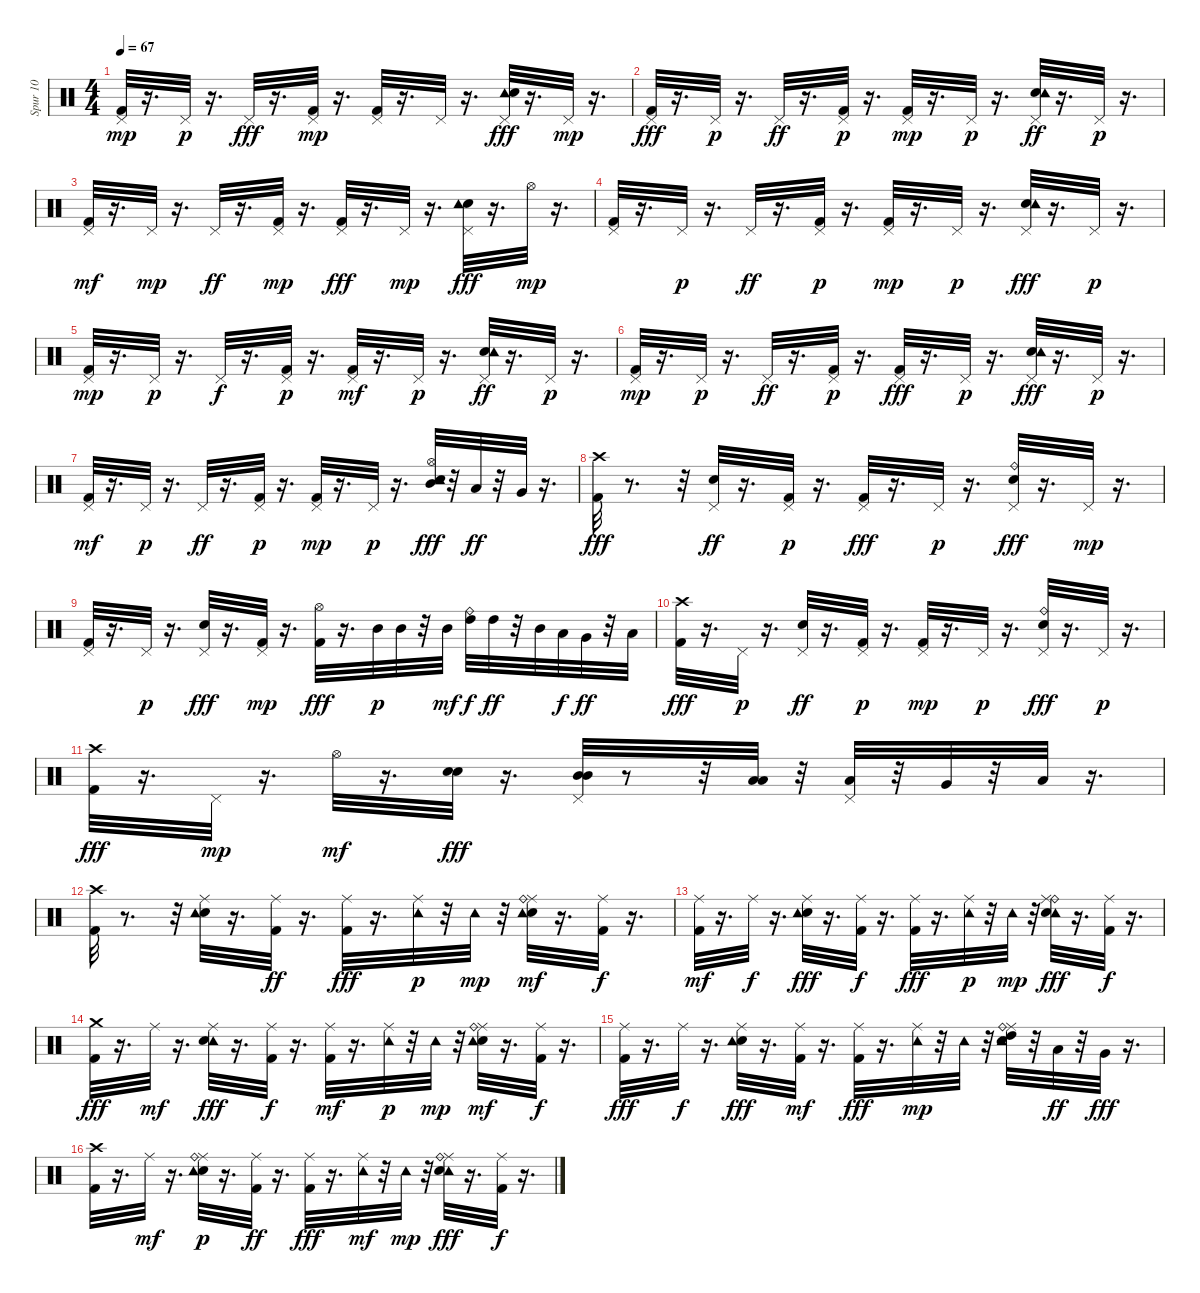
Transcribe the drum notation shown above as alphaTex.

\track ("Spur 10" "Spur 10") {instrument percussion}
\staff {score}
\articulation defaults
\ts (4 4)
\tempo 67
\clef neutral
\ks c
("Kick (hit) 2" "Pedal Hi-Hat (hit)").32{dy mp} r.16{d} "Pedal Hi-Hat (hit)".32{dy p} r.16{d} "Pedal Hi-Hat (hit)".32{dy fff} r.16{d} ("Pedal Hi-Hat (hit)" "Kick (hit) 2").32{dy mp} r.16{d} ("Kick (hit) 2" "Pedal Hi-Hat (hit)").32 r.16{d} "Pedal Hi-Hat (hit)".32 r.16{d} ("Tambourine (hit)" "Pedal Hi-Hat (hit)" "Snare (hit) 2").32{dy fff} r.16{d} "Pedal Hi-Hat (hit)".32{dy mp} r.16{d} |
("Pedal Hi-Hat (hit)" "Kick (hit) 2").32{dy fff} r.16{d} "Pedal Hi-Hat (hit)".32{dy p} r.16{d} "Pedal Hi-Hat (hit)".32{dy ff} r.16{d} ("Pedal Hi-Hat (hit)" "Kick (hit) 2").32{dy p} r.16{d} ("Kick (hit) 2" "Pedal Hi-Hat (hit)").32{dy mp} r.16{d} "Pedal Hi-Hat (hit)".32{dy p} r.16{d} ("Snare (hit) 2" "Tambourine (hit)" "Pedal Hi-Hat (hit)").32{dy ff} r.16{d} "Pedal Hi-Hat (hit)".32{dy p} r.16{d} |
("Kick (hit) 2" "Pedal Hi-Hat (hit)").32{dy mf} r.16{d} "Pedal Hi-Hat (hit)".32{dy mp} r.16{d} "Pedal Hi-Hat (hit)".32{dy ff} r.16{d} ("Kick (hit) 2" "Pedal Hi-Hat (hit)").32{dy mp} r.16{d} ("Pedal Hi-Hat (hit)" "Kick (hit) 2").32{dy fff} r.16{d} "Pedal Hi-Hat (hit)".32{dy mp} r.16{d} ("Pedal Hi-Hat (hit)" "Snare (hit) 2" "Tambourine (hit)").32{dy fff} r.16{d} "Hi-Hat (open)".32{dy mp} r.16{d} |
("Kick (hit) 2" "Pedal Hi-Hat (hit)").32 r.16{d} "Pedal Hi-Hat (hit)".32{dy p} r.16{d} "Pedal Hi-Hat (hit)".32{dy ff} r.16{d} ("Pedal Hi-Hat (hit)" "Kick (hit) 2").32{dy p} r.16{d} ("Kick (hit) 2" "Pedal Hi-Hat (hit)").32{dy mp} r.16{d} "Pedal Hi-Hat (hit)".32{dy p} r.16{d} ("Snare (hit) 2" "Pedal Hi-Hat (hit)" "Tambourine (hit)").32{dy fff} r.16{d} "Pedal Hi-Hat (hit)".32{dy p} r.16{d} |
("Kick (hit) 2" "Pedal Hi-Hat (hit)").32{dy mp} r.16{d} "Pedal Hi-Hat (hit)".32{dy p} r.16{d} "Pedal Hi-Hat (hit)".32{dy f} r.16{d} ("Kick (hit) 2" "Pedal Hi-Hat (hit)").32{dy p} r.16{d} ("Kick (hit) 2" "Pedal Hi-Hat (hit)").32{dy mf} r.16{d} "Pedal Hi-Hat (hit)".32{dy p} r.16{d} ("Snare (hit) 2" "Pedal Hi-Hat (hit)" "Tambourine (hit)").32{dy ff} r.16{d} "Pedal Hi-Hat (hit)".32{dy p} r.16{d} |
("Kick (hit) 2" "Pedal Hi-Hat (hit)").32{dy mp} r.16{d} "Pedal Hi-Hat (hit)".32{dy p} r.16{d} "Pedal Hi-Hat (hit)".32{dy ff} r.16{d} ("Pedal Hi-Hat (hit)" "Kick (hit) 2").32{dy p} r.16{d} ("Pedal Hi-Hat (hit)" "Kick (hit) 2").32{dy fff} r.16{d} "Pedal Hi-Hat (hit)".32{dy p} r.16{d} ("Pedal Hi-Hat (hit)" "Snare (hit) 2" "Tambourine (hit)").32{dy fff} r.16{d} "Pedal Hi-Hat (hit)".32{dy p} r.16{d} |
("Kick (hit) 2" "Pedal Hi-Hat (hit)").32{dy mf} r.16{d} "Pedal Hi-Hat (hit)".32{dy p} r.16{d} "Pedal Hi-Hat (hit)".32{dy ff} r.16{d} ("Kick (hit) 2" "Pedal Hi-Hat (hit)").32{dy p} r.16{d} ("Kick (hit) 2" "Pedal Hi-Hat (hit)").32{dy mp} r.16{d} "Pedal Hi-Hat (hit)".32{dy p} r.16{d} ("Mid Tom (hit)" "Tambourine (hit)" "Hi-Hat (open)" "Snare (hit) 2").32{dy fff} r.32 "Low Tom (hit)".32{dy ff} r.32 "Very Low Tom (hit)".32 r.16{d} |
("Crash high (hit)" "Kick (hit) 2").32{dy fff} r.8{d} r.32 ("Snare (hit) 2" "Pedal Hi-Hat (hit)").32{dy ff} r.16{d} ("Kick (hit) 2" "Pedal Hi-Hat (hit)").32{dy p} r.16{d} ("Pedal Hi-Hat (hit)" "Kick (hit) 2").32{dy fff} r.16{d} "Pedal Hi-Hat (hit)".32{dy p} r.16{d} ("Snare (hit) 2" "Pedal Hi-Hat (hit)" "Ride (bell)").32{dy fff} r.16{d} "Pedal Hi-Hat (hit)".32{dy mp} r.16{d} |
("Kick (hit) 2" "Pedal Hi-Hat (hit)").32 r.16{d} "Pedal Hi-Hat (hit)".32{dy p} r.16{d} ("Snare (hit) 2" "Pedal Hi-Hat (hit)").32{dy fff} r.16{d} ("Pedal Hi-Hat (hit)" "Kick (hit) 2").32{dy mp} r.16{d} ("Hi-Hat (open)" "Kick (hit) 2").32{dy fff} r.16{d} "Mid Tom (hit)".32{dy p} "Mid Tom (hit)".32 r.32 "Mid Tom (hit)".32{dy mf} ("High Tom (hit)" "Ride (bell)").32{dy f} "High Tom (hit)".32{dy ff} r.32 "Mid Tom (hit)".32 "Low Tom (hit)".32{dy f} "Very Low Tom (hit)".32{dy ff} r.32 "Low Floor Tom (hit)".32 |
("Crash high (hit)" "Kick (hit) 2").32{dy fff} r.16{d} "Pedal Hi-Hat (hit)".32{dy p} r.16{d} ("Snare (hit) 2" "Pedal Hi-Hat (hit)").32{dy ff} r.16{d} ("Kick (hit) 2" "Pedal Hi-Hat (hit)").32{dy p} r.16{d} ("Kick (hit) 2" "Pedal Hi-Hat (hit)").32{dy mp} r.16{d} "Pedal Hi-Hat (hit)".32{dy p} r.16{d} ("Pedal Hi-Hat (hit)" "Snare (hit) 2" "Ride (bell)").32{dy fff} r.16{d} "Pedal Hi-Hat (hit)".32{dy p} r.16{d} |
("Crash high (hit)" "Kick (hit) 2").32{dy fff} r.16{d} "Pedal Hi-Hat (hit)".32{dy mp} r.16{d} "Hi-Hat (open)".32{dy mf} r.16{d} ("Snare (hit) 2" "Snare (hit) 2").32{dy fff} r.16{d} ("Mid Tom (hit)" "Pedal Hi-Hat (hit)" "Mid Tom (hit)").32 r.8 r.32 ("Low Tom (hit)" "Low Tom (hit)").32 r.32 ("Pedal Hi-Hat (hit)" "Low Tom (hit)").32 r.32 "Very Low Tom (hit)".32 r.32 "Low Floor Tom (hit)".32 r.16{d} |
("Crash high (hit)" "Kick (hit) 2").32 r.8{d} r.32 ("Snare (hit) 2" "Tambourine (hit)" "Ride (middle)").32 r.16{d} ("Kick (hit) 2" "Ride (middle)").32{dy ff} r.16{d} ("Ride (middle)" "Kick (hit) 2").32{dy fff} r.16{d} ("Ride (middle)" "Tambourine (hit)").32{dy p} r.32 "Tambourine (hit)".32{dy mp} r.32 ("Snare (hit) 2" "Ride (middle)" "Ride (bell)" "Tambourine (hit)").32{dy mf} r.16{d} ("Kick (hit) 2" "Ride (middle)").32{dy f} r.16{d} |
("Kick (hit) 2" "Ride (middle)").32{dy mf} r.16{d} "Ride (middle)".32{dy f} r.16{d} ("Ride (middle)" "Snare (hit) 2" "Tambourine (hit)").32{dy fff} r.16{d} ("Kick (hit) 2" "Ride (middle)").32{dy f} r.16{d} ("Ride (middle)" "Kick (hit) 2").32{dy fff} r.16{d} ("Ride (middle)" "Tambourine (hit)").32{dy p} r.32 "Tambourine (hit)".32{dy mp} r.32 ("Tambourine (hit)" "Ride (bell)" "Snare (hit) 2" "Ride (middle)").32{dy fff} r.16{d} ("Ride (middle)" "Kick (hit) 2").32{dy f} r.16{d} |
("Crash medium (hit)" "Kick (hit) 2").32{dy fff} r.16{d} "Ride (middle)".32{dy mf} r.16{d} ("Tambourine (hit)" "Ride (middle)" "Snare (hit) 2").32{dy fff} r.16{d} ("Ride (middle)" "Kick (hit) 2").32{dy f} r.16{d} ("Kick (hit) 2" "Ride (middle)").32{dy mf} r.16{d} ("Tambourine (hit)" "Ride (middle)").32{dy p} r.32 "Tambourine (hit)".32{dy mp} r.32 ("Snare (hit) 2" "Ride (middle)" "Ride (bell)" "Tambourine (hit)").32{dy mf} r.16{d} ("Kick (hit) 2" "Ride (middle)").32{dy f} r.16{d} |
("Ride (middle)" "Kick (hit) 2").32{dy fff} r.16{d} "Ride (middle)".32{dy f} r.16{d} ("Snare (hit) 2" "Ride (middle)" "Tambourine (hit)").32{dy fff} r.16{d} ("Kick (hit) 2" "Ride (middle)").32{dy mf} r.16{d} ("Ride (middle)" "Kick (hit) 2").32{dy fff} r.16{d} ("Tambourine (hit)" "Ride (middle)").32{dy mp} r.32 "Tambourine (hit)".32 r.32 ("Snare (hit) 2" "High Tom (hit)" "Ride (middle)" "Ride (bell)" "Tambourine (hit)").32 r.32 "Low Tom (hit)".32{dy ff} r.32 "Very Low Tom (hit)".32{dy fff} r.16{d} |
("Crash high (hit)" "Kick (hit) 2").32 r.16{d} "Ride (middle)".32{dy mf} r.16{d} ("Snare (hit) 2" "Ride (middle)" "Ride (bell)" "Tambourine (hit)").32{dy p} r.16{d} ("Kick (hit) 2" "Ride (middle)").32{dy ff} r.16{d} ("Kick (hit) 2" "Ride (middle)").32{dy fff} r.16{d} ("Tambourine (hit)" "Ride (middle)").32{dy mf} r.32 "Tambourine (hit)".32{dy mp} r.32 ("Tambourine (hit)" "Ride (middle)" "Ride (bell)" "Snare (hit) 2").32{dy fff} r.16{d} ("Ride (middle)" "Kick (hit) 2").32{dy f} r.16{d}
